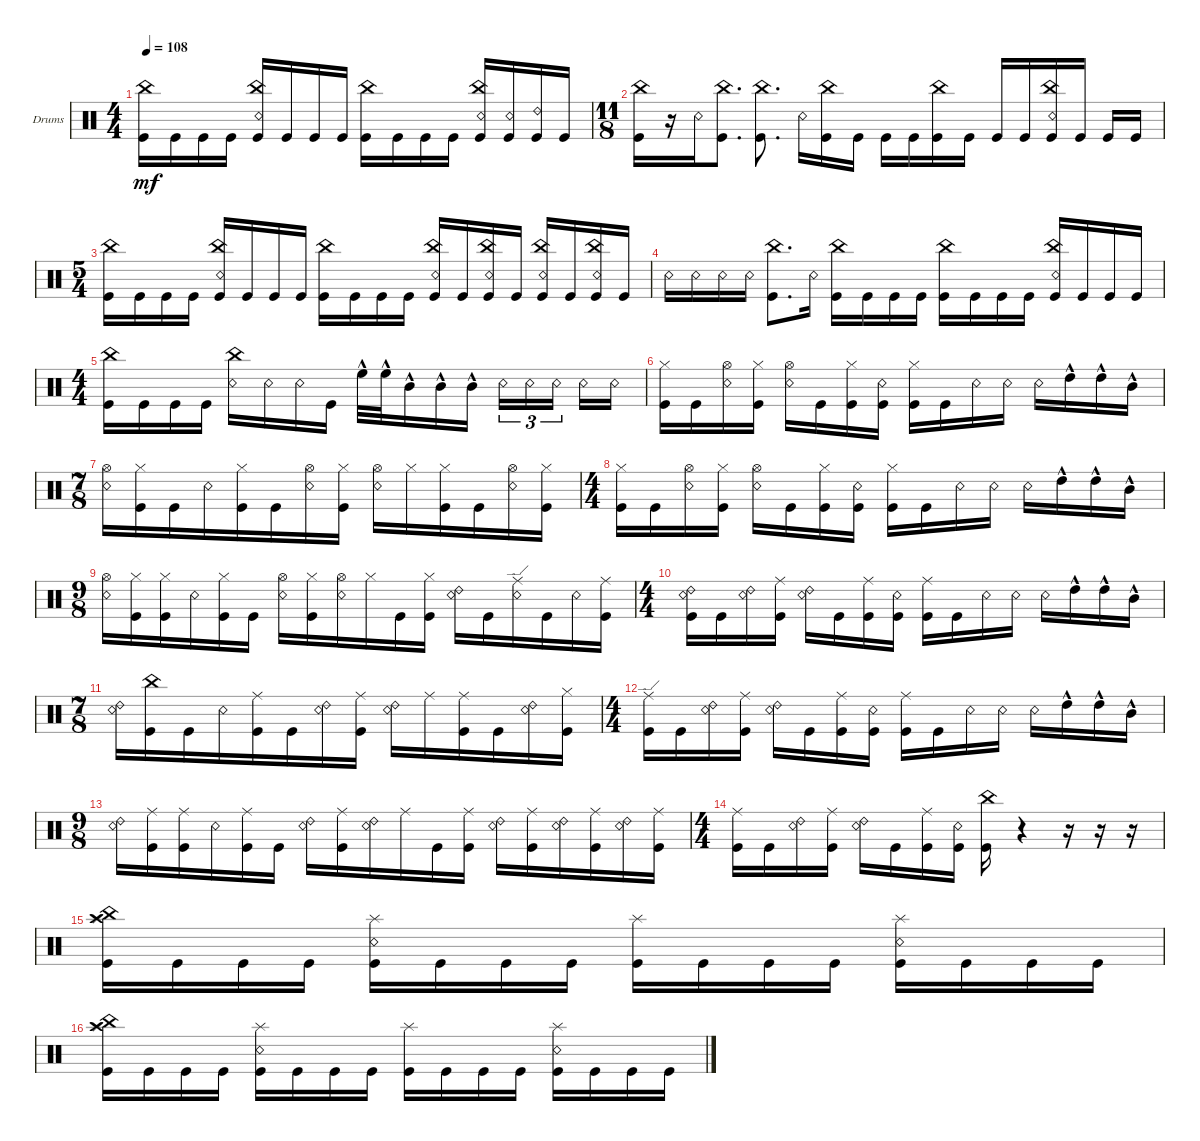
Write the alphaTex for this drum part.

\defaultSystemsLayout 4
\bracketExtendMode groupsimilarinstruments
\firstSystemTrackNameOrientation horizontal
\otherSystemsTrackNameOrientation horizontal
\track ("Drumkit" "Drums") {instrument percussion}
\staff {score}
\articulation defaults
\ts (4 4)
\tempo 108
\clef neutral
\ks c
("Kick (hit)" "China (hit)").16{dy mf} "Kick (hit)".16 "Kick (hit)".16 "Kick (hit)".16 ("Kick (hit)" "China (hit)" "Snare (rim shot)").16 "Kick (hit)".16 "Kick (hit)".16 "Kick (hit)".16 ("Kick (hit)" "China (hit)").16 "Kick (hit)".16 "Kick (hit)".16 "Kick (hit)".16 ("Kick (hit)" "China (hit)" "Snare (rim shot)").16 ("Kick (hit)" "Snare (rim shot)").16 ("Kick (hit)" "Ride (bell) 2").16 "Kick (hit)".16 |
\ts (11 8)
("Kick (hit)" "China (hit)").16 r.16 "Snare (rim shot)".16 ("Kick (hit)" "China (hit)").8{d} ("Kick (hit)" "China (hit)").8{d} "Snare (rim shot)".16 ("Kick (hit)" "China (hit)").16 "Kick (hit)".16 "Kick (hit)".16 "Kick (hit)".16 ("Kick (hit)" "China (hit)").16 "Kick (hit)".16 "Kick (hit)".16 "Kick (hit)".16 ("Kick (hit)" "China (hit)" "Snare (rim shot)").16 "Kick (hit)".16 "Kick (hit)".16 "Kick (hit)".16 |
\ts (5 4)
("Kick (hit)" "China (hit)").16 "Kick (hit)".16 "Kick (hit)".16 "Kick (hit)".16 ("Kick (hit)" "China (hit)" "Snare (rim shot)").16 "Kick (hit)".16 "Kick (hit)".16 "Kick (hit)".16 ("Kick (hit)" "China (hit)").16 "Kick (hit)".16 "Kick (hit)".16 "Kick (hit)".16 ("Kick (hit)" "China (hit)" "Snare (rim shot)").16 "Kick (hit)".16 ("Kick (hit)" "China (hit)" "Snare (rim shot)").16 "Kick (hit)".16 ("Kick (hit)" "China (hit)" "Snare (rim shot)").16 "Kick (hit)".16 ("Kick (hit)" "China (hit)" "Snare (rim shot)").16 "Kick (hit)".16 |
"Snare (rim shot)".16 "Snare (rim shot)".16 "Snare (rim shot)".16 "Snare (rim shot)".16 ("Kick (hit)" "China (hit)").8{d} "Snare (rim shot)".16 ("Kick (hit)" "China (hit)").16 "Kick (hit)".16 "Kick (hit)".16 "Kick (hit)".16 ("Kick (hit)" "China (hit)").16 "Kick (hit)".16 "Kick (hit)".16 "Kick (hit)".16 ("Kick (hit)" "China (hit)" "Snare (rim shot)").16 "Kick (hit)".16 "Kick (hit)".16 "Kick (hit)".16 |
\ts (4 4)
("Kick (hit)" "China (hit)").16 "Kick (hit)".16 "Kick (hit)".16 "Kick (hit)".16 ("China (hit)" "Snare (rim shot)").16 "Snare (rim shot)".16 "Snare (rim shot)".16 "Kick (hit)".16 "High Floor Tom (hit)"{hac}.32 "High Floor Tom (hit)"{hac}.32 "Mid Tom (hit)"{hac}.16 "Mid Tom (hit)"{hac}.16 "Mid Tom (hit)"{hac}.16 "Snare (rim shot)".16{tu (3 2)} "Snare (rim shot)".16{tu (3 2)} "Snare (rim shot)".16{tu (3 2)} "Snare (rim shot)".16 "Snare (rim shot)".16 |
("Kick (hit)" "Hi-Hat (closed)").16 "Kick (hit)".16 ("Hi-Hat (open)" "Snare (rim shot)").16 ("Hi-Hat (closed)" "Kick (hit)").16 ("Snare (rim shot)" "Hi-Hat (open)").16 "Kick (hit)".16 ("Kick (hit)" "Hi-Hat (closed)").16 ("Kick (hit)" "Snare (rim shot)").16 ("Kick (hit)" "Hi-Hat (closed)").16 "Kick (hit)".16 "Snare (rim shot)".16 "Snare (rim shot)".16 "Snare (rim shot)".16 "High Tom (hit)"{hac}.16 "High Tom (hit)"{hac}.16 "Mid Tom (hit)"{hac}.16 |
\ts (7 8)
("Snare (rim shot)" "Hi-Hat (open)").16 ("Kick (hit)" "Hi-Hat (closed)").16 "Kick (hit)".16 "Snare (rim shot)".16 ("Kick (hit)" "Hi-Hat (closed)").16 "Kick (hit)".16 ("Snare (rim shot)" "Hi-Hat (open)").16 ("Kick (hit)" "Hi-Hat (closed)").16 ("Snare (rim shot)" "Hi-Hat (open)").16 "Hi-Hat (closed)".16 ("Kick (hit)" "Hi-Hat (closed)").16 "Kick (hit)".16 ("Snare (rim shot)" "Hi-Hat (open)").16 ("Kick (hit)" "Hi-Hat (closed)").16 |
\ts (4 4)
("Kick (hit)" "Hi-Hat (closed)").16 "Kick (hit)".16 ("Hi-Hat (open)" "Snare (rim shot)").16 ("Hi-Hat (closed)" "Kick (hit)").16 ("Snare (rim shot)" "Hi-Hat (open)").16 "Kick (hit)".16 ("Kick (hit)" "Hi-Hat (closed)").16 ("Kick (hit)" "Snare (rim shot)").16 ("Kick (hit)" "Hi-Hat (closed)").16 "Kick (hit)".16 "Snare (rim shot)".16 "Snare (rim shot)".16 "Snare (rim shot)".16 "High Tom (hit)"{hac}.16 "High Tom (hit)"{hac}.16 "Mid Tom (hit)"{hac}.16 |
\ts (9 8)
("Snare (rim shot)" "Hi-Hat (open)").16 ("Kick (hit)" "Hi-Hat (closed)").16 ("Kick (hit)" "Hi-Hat (closed)").16 "Snare (rim shot)".16 ("Kick (hit)" "Hi-Hat (closed)").16 "Kick (hit)".16 ("Snare (rim shot)" "Hi-Hat (open)").16 ("Kick (hit)" "Hi-Hat (closed)").16 ("Snare (rim shot)" "Hi-Hat (open)").16 "Hi-Hat (closed)".16 "Kick (hit)".16 ("Kick (hit)" "Hi-Hat (closed)").16 ("Snare (rim shot)" "Ride (bell) 2").16 "Kick (hit)".16 ("Snare (rim shot)" "Ride (edge)").16 "Kick (hit)".16 "Snare (rim shot)".16 ("Kick (hit)" "Ride (middle)").16 |
\ts (4 4)
("Kick (hit)" "Snare (rim shot)" "Ride (bell) 2").16 "Kick (hit)".16 ("Snare (rim shot)" "Ride (bell) 2").16 ("Kick (hit)" "Ride (middle)").16 ("Snare (rim shot)" "Ride (bell) 2").16 "Kick (hit)".16 ("Kick (hit)" "Ride (middle)").16 ("Kick (hit)" "Snare (rim shot)").16 ("Kick (hit)" "Ride (middle)").16 "Kick (hit)".16 "Snare (rim shot)".16 "Snare (rim shot)".16 "Snare (rim shot)".16 "High Tom (hit)"{hac}.16 "High Tom (hit)"{hac}.16 "Mid Tom (hit)"{hac}.16 |
\ts (7 8)
("Snare (rim shot)" "Ride (bell) 2").16 ("Kick (hit)" "China (hit)").16 "Kick (hit)".16 "Snare (rim shot)".16 ("Kick (hit)" "Ride (middle)").16 "Kick (hit)".16 ("Snare (rim shot)" "Ride (bell) 2").16 ("Kick (hit)" "Ride (middle)").16 ("Snare (rim shot)" "Ride (bell) 2").16 "Ride (middle)".16 ("Kick (hit)" "Ride (middle)").16 "Kick (hit)".16 ("Snare (rim shot)" "Ride (bell) 2").16 ("Kick (hit)" "Hi-Hat (closed)").16 |
\ts (4 4)
("Kick (hit)" "Ride (edge)").16 "Kick (hit)".16 ("Snare (rim shot)" "Ride (bell) 2").16 ("Kick (hit)" "Ride (middle)").16 ("Snare (rim shot)" "Ride (bell) 2").16 "Kick (hit)".16 ("Kick (hit)" "Ride (middle)").16 ("Kick (hit)" "Snare (rim shot)").16 ("Kick (hit)" "Ride (middle)").16 "Kick (hit)".16 "Snare (rim shot)".16 "Snare (rim shot)".16 "Snare (rim shot)".16 "High Tom (hit)"{hac}.16 "High Tom (hit)"{hac}.16 "Mid Tom (hit)"{hac}.16 |
\ts (9 8)
("Snare (rim shot)" "Ride (bell) 2").16 ("Kick (hit)" "Ride (middle)").16 ("Kick (hit)" "Ride (middle)").16 "Snare (rim shot)".16 ("Kick (hit)" "Ride (middle)").16 "Kick (hit)".16 ("Snare (rim shot)" "Ride (bell) 2").16 ("Kick (hit)" "Ride (middle)").16 ("Snare (rim shot)" "Ride (bell) 2").16 "Ride (middle)".16 "Kick (hit)".16 ("Kick (hit)" "Ride (middle)").16 ("Snare (rim shot)" "Ride (bell) 2").16 ("Kick (hit)" "Ride (middle)").16 ("Snare (rim shot)" "Ride (bell) 2").16 ("Kick (hit)" "Ride (middle)").16 ("Snare (rim shot)" "Ride (bell) 2").16 ("Kick (hit)" "Ride (middle)").16 |
\ts (4 4)
("Kick (hit)" "Ride (middle)").16 "Kick (hit)".16 ("Snare (rim shot)" "Ride (bell) 2").16 ("Kick (hit)" "Ride (middle)").16 ("Snare (rim shot)" "Ride (bell) 2").16 "Kick (hit)".16 ("Kick (hit)" "Ride (middle)").16 ("Kick (hit)" "Snare (rim shot)").16 ("Kick (hit)" "China (hit)").16 r.4 r.16 r.16 r.16 |
("Kick (hit)" "China (hit)" "Splash (hit)" "Crash high (hit)").16 "Kick (hit)".16 "Kick (hit)".16 "Kick (hit)".16 ("Kick (hit)" "Snare (rim shot)" "Splash (hit)").16 "Kick (hit)".16 "Kick (hit)".16 "Kick (hit)".16 ("Kick (hit)" "Splash (hit)").16 "Kick (hit)".16 "Kick (hit)".16 "Kick (hit)".16 ("Kick (hit)" "Snare (rim shot)" "Splash (hit)").16 "Kick (hit)".16 "Kick (hit)".16 "Kick (hit)".16 |
("Kick (hit)" "China (hit)" "Splash (hit)" "Crash high (hit)").16 "Kick (hit)".16 "Kick (hit)".16 "Kick (hit)".16 ("Kick (hit)" "Snare (rim shot)" "Splash (hit)").16 "Kick (hit)".16 "Kick (hit)".16 "Kick (hit)".16 ("Kick (hit)" "Splash (hit)").16 "Kick (hit)".16 "Kick (hit)".16 "Kick (hit)".16 ("Kick (hit)" "Snare (rim shot)" "Splash (hit)").16 "Kick (hit)".16 "Kick (hit)".16 "Kick (hit)".16
